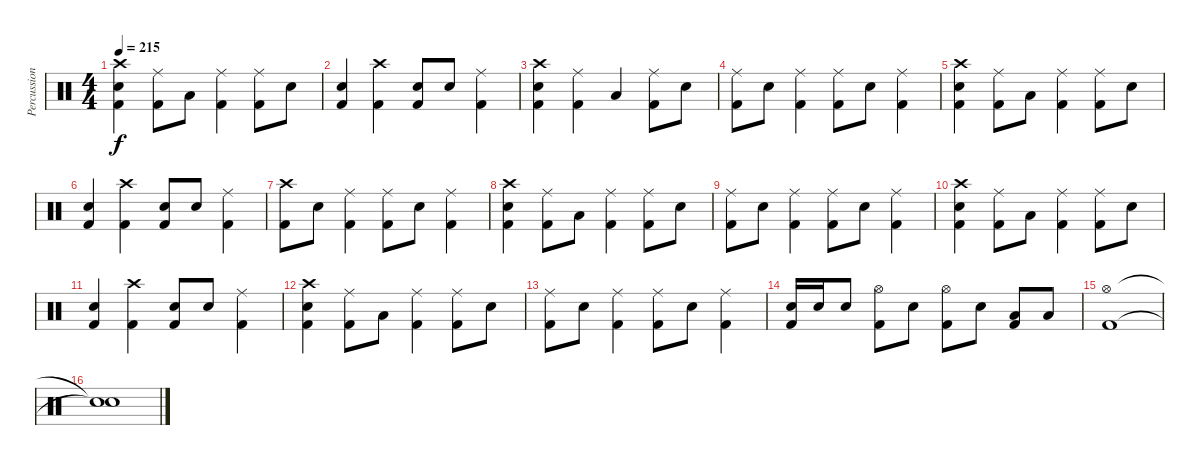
\track ("Percussion" "Percussion") {instrument percussion}
\staff {score}
\articulation defaults
\ts (4 4)
\tempo 215
\clef neutral
\ks aminor
("Crash high (hit)" "Snare (hit) 2" "Kick (hit) 2").4{dy f} ("Ride (middle)" "Kick (hit) 2").8 "Low Tom (hit)".8 ("Ride (middle)" "Kick (hit) 2").4 ("Ride (middle)" "Kick (hit) 2").8 "Snare (hit) 2".8 |
("Snare (hit) 2" "Kick (hit) 2").4 ("Crash high (hit)" "Kick (hit) 2").4 ("Snare (hit) 2" "Kick (hit) 2").8 "Snare (hit) 2".8 ("Ride (middle)" "Kick (hit) 2").4 |
("Crash high (hit)" "Snare (hit) 2" "Kick (hit) 2").4 ("Ride (middle)" "Kick (hit) 2").4 "Low Tom (hit)".4 ("Ride (middle)" "Kick (hit) 2").8 "Snare (hit) 2".8 |
("Ride (middle)" "Kick (hit) 2").8 "Snare (hit) 2".8 ("Ride (middle)" "Kick (hit) 2").4 ("Ride (middle)" "Kick (hit) 2").8 "Snare (hit) 2".8 ("Ride (middle)" "Kick (hit) 2").4 |
("Crash high (hit)" "Snare (hit) 2" "Kick (hit) 2").4 ("Ride (middle)" "Kick (hit) 2").8 "Low Tom (hit)".8 ("Ride (middle)" "Kick (hit) 2").4 ("Ride (middle)" "Kick (hit) 2").8 "Snare (hit) 2".8 |
("Snare (hit) 2" "Kick (hit) 2").4 ("Crash high (hit)" "Kick (hit) 2").4 ("Snare (hit) 2" "Kick (hit) 2").8 "Snare (hit) 2".8 ("Ride (middle)" "Kick (hit) 2").4 |
("Kick (hit) 2" "Crash high (hit)").8 "Snare (hit) 2".8 ("Ride (middle)" "Kick (hit) 2").4 ("Ride (middle)" "Kick (hit) 2").8 "Snare (hit) 2".8 ("Ride (middle)" "Kick (hit) 2").4 |
("Crash high (hit)" "Snare (hit) 2" "Kick (hit) 2").4 ("Ride (middle)" "Kick (hit) 2").8 "Low Tom (hit)".8 ("Ride (middle)" "Kick (hit) 2").4 ("Ride (middle)" "Kick (hit) 2").8 "Snare (hit) 2".8 |
("Ride (middle)" "Kick (hit) 2").8 "Snare (hit) 2".8 ("Ride (middle)" "Kick (hit) 2").4 ("Ride (middle)" "Kick (hit) 2").8 "Snare (hit) 2".8 ("Ride (middle)" "Kick (hit) 2").4 |
("Crash high (hit)" "Snare (hit) 2" "Kick (hit) 2").4 ("Ride (middle)" "Kick (hit) 2").8 "Low Tom (hit)".8 ("Ride (middle)" "Kick (hit) 2").4 ("Ride (middle)" "Kick (hit) 2").8 "Snare (hit) 2".8 |
("Snare (hit) 2" "Kick (hit) 2").4 ("Crash high (hit)" "Kick (hit) 2").4 ("Snare (hit) 2" "Kick (hit) 2").8 "Snare (hit) 2".8 ("Ride (middle)" "Kick (hit) 2").4 |
("Crash high (hit)" "Kick (hit) 2" "Snare (hit) 2").4 ("Ride (middle)" "Kick (hit) 2").8 "Low Tom (hit)".8 ("Ride (middle)" "Kick (hit) 2").4 ("Ride (middle)" "Kick (hit) 2").8 "Snare (hit) 2".8 |
("Ride (middle)" "Kick (hit) 2").8 "Snare (hit) 2".8 ("Ride (middle)" "Kick (hit) 2").4 ("Ride (middle)" "Kick (hit) 2").8 "Snare (hit) 2".8 ("Ride (middle)" "Kick (hit) 2").4 |
("Snare (hit) 2" "Kick (hit) 2").16 "Snare (hit) 2".16 "Snare (hit) 2".8 ("Hi-Hat (open)" "Kick (hit) 2").8 "Snare (hit) 2".8 ("Hi-Hat (open)" "Kick (hit) 2").8 "Snare (hit) 2".8 ("Low Tom (hit)" "Kick (hit) 2").8 "Low Tom (hit)".8 |
("Hi-Hat (open)" "Kick (hit) 2").1 |
("Snare (hit)"{t} "Snare (hit)"{t}).1
